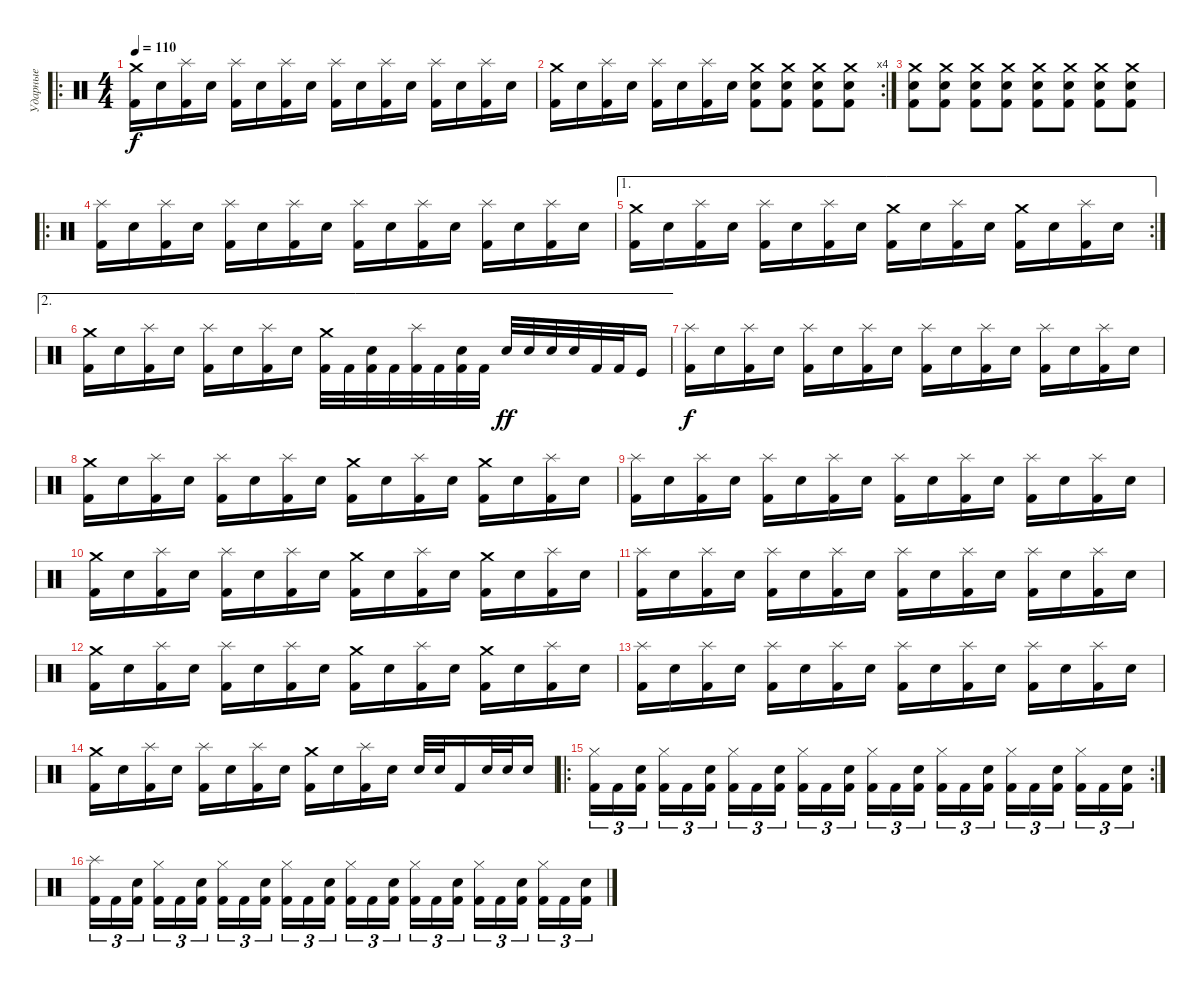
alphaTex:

\track ("Ударные" "Ударные") {instrument percussion}
\staff {score}
\articulation defaults
\ro
\ts (4 4)
\tempo 110
\clef neutral
\ks c
("Crash medium (hit)" "Kick (hit) 2").16{dy f} "Electric Snare (hit)".16 ("Splash (hit)" "Kick (hit) 2").16 "Electric Snare (hit)".16 ("Splash (hit)" "Kick (hit) 2").16 "Electric Snare (hit)".16 ("Splash (hit)" "Kick (hit) 2").16 "Electric Snare (hit)".16 ("Splash (hit)" "Kick (hit) 2").16 "Electric Snare (hit)".16 ("Splash (hit)" "Kick (hit) 2").16 "Electric Snare (hit)".16 ("Splash (hit)" "Kick (hit) 2").16 "Electric Snare (hit)".16 ("Splash (hit)" "Kick (hit) 2").16 "Electric Snare (hit)".16 |
\rc 4
("Crash medium (hit)" "Kick (hit) 2").16 "Electric Snare (hit)".16 ("Splash (hit)" "Kick (hit) 2").16 "Electric Snare (hit)".16 ("Splash (hit)" "Kick (hit) 2").16 "Electric Snare (hit)".16 ("Splash (hit)" "Kick (hit) 2").16 "Electric Snare (hit)".16 ("Crash medium (hit)" "Electric Snare (hit)" "Kick (hit) 2").8 ("Crash medium (hit)" "Electric Snare (hit)" "Kick (hit) 2").8 ("Crash medium (hit)" "Electric Snare (hit)" "Kick (hit) 2").8 ("Crash medium (hit)" "Electric Snare (hit)" "Kick (hit) 2").8 |
("Crash medium (hit)" "Electric Snare (hit)" "Kick (hit) 2").8 ("Crash medium (hit)" "Electric Snare (hit)" "Kick (hit) 2").8 ("Crash medium (hit)" "Electric Snare (hit)" "Kick (hit) 2").8 ("Crash medium (hit)" "Electric Snare (hit)" "Kick (hit) 2").8 ("Crash medium (hit)" "Electric Snare (hit)" "Kick (hit) 2").8 ("Crash medium (hit)" "Electric Snare (hit)" "Kick (hit) 2").8 ("Crash medium (hit)" "Electric Snare (hit)" "Kick (hit) 2").8 ("Crash medium (hit)" "Electric Snare (hit)" "Kick (hit) 2").8 |
\ro
("Splash (hit)" "Kick (hit) 2").16 "Electric Snare (hit)".16 ("Splash (hit)" "Kick (hit) 2").16 "Electric Snare (hit)".16 ("Splash (hit)" "Kick (hit) 2").16 "Electric Snare (hit)".16 ("Splash (hit)" "Kick (hit) 2").16 "Electric Snare (hit)".16 ("Splash (hit)" "Kick (hit) 2").16 "Electric Snare (hit)".16 ("Splash (hit)" "Kick (hit) 2").16 "Electric Snare (hit)".16 ("Splash (hit)" "Kick (hit) 2").16 "Electric Snare (hit)".16 ("Splash (hit)" "Kick (hit) 2").16 "Electric Snare (hit)".16 |
\ae 1
\rc 2
("Crash medium (hit)" "Kick (hit) 2").16 "Electric Snare (hit)".16 ("Splash (hit)" "Kick (hit) 2").16 "Electric Snare (hit)".16 ("Splash (hit)" "Kick (hit) 2").16 "Electric Snare (hit)".16 ("Splash (hit)" "Kick (hit) 2").16 "Electric Snare (hit)".16 ("Crash medium (hit)" "Kick (hit) 2").16 "Electric Snare (hit)".16 ("Splash (hit)" "Kick (hit) 2").16 "Electric Snare (hit)".16 ("Crash medium (hit)" "Kick (hit) 2").16 "Electric Snare (hit)".16 ("Splash (hit)" "Kick (hit) 2").16 "Electric Snare (hit)".16 |
\ae 2
("Crash medium (hit)" "Kick (hit) 2").16 "Electric Snare (hit)".16 ("Splash (hit)" "Kick (hit) 2").16 "Electric Snare (hit)".16 ("Splash (hit)" "Kick (hit) 2").16 "Electric Snare (hit)".16 ("Splash (hit)" "Kick (hit) 2").16 "Electric Snare (hit)".16 ("Crash medium (hit)" "Kick (hit) 2").32 "Kick (hit) 2".32 ("Electric Snare (hit)" "Kick (hit) 2").32 "Kick (hit) 2".32 ("Splash (hit)" "Kick (hit) 2").32 "Kick (hit) 2".32 ("Electric Snare (hit)" "Kick (hit) 2").32 "Kick (hit) 2".32 "Electric Snare (hit)".32{dy ff} "Electric Snare (hit)".32 "Snare (hit) 2".32 "Snare (hit) 2".32 "Kick (hit) 2".32 "Kick (hit) 2".32 "Kick (hit)".16 |
("Splash (hit)" "Kick (hit) 2").16{dy f} "Electric Snare (hit)".16 ("Splash (hit)" "Kick (hit) 2").16 "Electric Snare (hit)".16 ("Splash (hit)" "Kick (hit) 2").16 "Electric Snare (hit)".16 ("Splash (hit)" "Kick (hit) 2").16 "Electric Snare (hit)".16 ("Splash (hit)" "Kick (hit) 2").16 "Electric Snare (hit)".16 ("Splash (hit)" "Kick (hit) 2").16 "Electric Snare (hit)".16 ("Splash (hit)" "Kick (hit) 2").16 "Electric Snare (hit)".16 ("Splash (hit)" "Kick (hit) 2").16 "Electric Snare (hit)".16 |
("Crash medium (hit)" "Kick (hit) 2").16 "Electric Snare (hit)".16 ("Splash (hit)" "Kick (hit) 2").16 "Electric Snare (hit)".16 ("Splash (hit)" "Kick (hit) 2").16 "Electric Snare (hit)".16 ("Splash (hit)" "Kick (hit) 2").16 "Electric Snare (hit)".16 ("Crash medium (hit)" "Kick (hit) 2").16 "Electric Snare (hit)".16 ("Splash (hit)" "Kick (hit) 2").16 "Electric Snare (hit)".16 ("Crash medium (hit)" "Kick (hit) 2").16 "Electric Snare (hit)".16 ("Splash (hit)" "Kick (hit) 2").16 "Electric Snare (hit)".16 |
("Splash (hit)" "Kick (hit) 2").16 "Electric Snare (hit)".16 ("Splash (hit)" "Kick (hit) 2").16 "Electric Snare (hit)".16 ("Splash (hit)" "Kick (hit) 2").16 "Electric Snare (hit)".16 ("Splash (hit)" "Kick (hit) 2").16 "Electric Snare (hit)".16 ("Splash (hit)" "Kick (hit) 2").16 "Electric Snare (hit)".16 ("Splash (hit)" "Kick (hit) 2").16 "Electric Snare (hit)".16 ("Splash (hit)" "Kick (hit) 2").16 "Electric Snare (hit)".16 ("Splash (hit)" "Kick (hit) 2").16 "Electric Snare (hit)".16 |
("Crash medium (hit)" "Kick (hit) 2").16 "Electric Snare (hit)".16 ("Splash (hit)" "Kick (hit) 2").16 "Electric Snare (hit)".16 ("Splash (hit)" "Kick (hit) 2").16 "Electric Snare (hit)".16 ("Splash (hit)" "Kick (hit) 2").16 "Electric Snare (hit)".16 ("Crash medium (hit)" "Kick (hit) 2").16 "Electric Snare (hit)".16 ("Splash (hit)" "Kick (hit) 2").16 "Electric Snare (hit)".16 ("Crash medium (hit)" "Kick (hit) 2").16 "Electric Snare (hit)".16 ("Splash (hit)" "Kick (hit) 2").16 "Electric Snare (hit)".16 |
("Splash (hit)" "Kick (hit) 2").16 "Electric Snare (hit)".16 ("Splash (hit)" "Kick (hit) 2").16 "Electric Snare (hit)".16 ("Splash (hit)" "Kick (hit) 2").16 "Electric Snare (hit)".16 ("Splash (hit)" "Kick (hit) 2").16 "Electric Snare (hit)".16 ("Splash (hit)" "Kick (hit) 2").16 "Electric Snare (hit)".16 ("Splash (hit)" "Kick (hit) 2").16 "Electric Snare (hit)".16 ("Splash (hit)" "Kick (hit) 2").16 "Electric Snare (hit)".16 ("Splash (hit)" "Kick (hit) 2").16 "Electric Snare (hit)".16 |
("Crash medium (hit)" "Kick (hit) 2").16 "Electric Snare (hit)".16 ("Splash (hit)" "Kick (hit) 2").16 "Electric Snare (hit)".16 ("Splash (hit)" "Kick (hit) 2").16 "Electric Snare (hit)".16 ("Splash (hit)" "Kick (hit) 2").16 "Electric Snare (hit)".16 ("Crash medium (hit)" "Kick (hit) 2").16 "Electric Snare (hit)".16 ("Splash (hit)" "Kick (hit) 2").16 "Electric Snare (hit)".16 ("Crash medium (hit)" "Kick (hit) 2").16 "Electric Snare (hit)".16 ("Splash (hit)" "Kick (hit) 2").16 "Electric Snare (hit)".16 |
("Splash (hit)" "Kick (hit) 2").16 "Electric Snare (hit)".16 ("Splash (hit)" "Kick (hit) 2").16 "Electric Snare (hit)".16 ("Splash (hit)" "Kick (hit) 2").16 "Electric Snare (hit)".16 ("Splash (hit)" "Kick (hit) 2").16 "Electric Snare (hit)".16 ("Splash (hit)" "Kick (hit) 2").16 "Electric Snare (hit)".16 ("Splash (hit)" "Kick (hit) 2").16 "Electric Snare (hit)".16 ("Splash (hit)" "Kick (hit) 2").16 "Electric Snare (hit)".16 ("Splash (hit)" "Kick (hit) 2").16 "Electric Snare (hit)".16 |
("Crash medium (hit)" "Kick (hit) 2").16 "Electric Snare (hit)".16 ("Splash (hit)" "Kick (hit) 2").16 "Electric Snare (hit)".16 ("Splash (hit)" "Kick (hit) 2").16 "Electric Snare (hit)".16 ("Splash (hit)" "Kick (hit) 2").16 "Electric Snare (hit)".16 ("Crash medium (hit)" "Kick (hit) 2").16 "Electric Snare (hit)".16 ("Splash (hit)" "Kick (hit) 2").16 "Electric Snare (hit)".16 "Electric Snare (hit)".32 "Electric Snare (hit)".32 "Kick (hit) 2".16 "Snare (hit) 2".32 "Snare (hit) 2".32 "Electric Snare (hit)".16 |
\ro
\rc 2
("Hi-Hat (closed)" "Kick (hit) 2").16{tu (3 2)} "Kick (hit) 2".16{tu (3 2)} ("Electric Snare (hit)" "Kick (hit) 2").16{tu (3 2) beam splitsecondary} ("Hi-Hat (closed)" "Kick (hit) 2").16{tu (3 2)} "Kick (hit) 2".16{tu (3 2)} ("Electric Snare (hit)" "Kick (hit) 2").16{tu (3 2)} ("Hi-Hat (closed)" "Kick (hit) 2").16{tu (3 2)} "Kick (hit) 2".16{tu (3 2)} ("Electric Snare (hit)" "Kick (hit) 2").16{tu (3 2) beam splitsecondary} ("Hi-Hat (closed)" "Kick (hit) 2").16{tu (3 2)} "Kick (hit) 2".16{tu (3 2)} ("Electric Snare (hit)" "Kick (hit) 2").16{tu (3 2)} ("Hi-Hat (closed)" "Kick (hit) 2").16{tu (3 2)} "Kick (hit) 2".16{tu (3 2)} ("Electric Snare (hit)" "Kick (hit) 2").16{tu (3 2) beam splitsecondary} ("Hi-Hat (closed)" "Kick (hit) 2").16{tu (3 2)} "Kick (hit) 2".16{tu (3 2)} ("Electric Snare (hit)" "Kick (hit) 2").16{tu (3 2)} ("Hi-Hat (closed)" "Kick (hit) 2").16{tu (3 2)} "Kick (hit) 2".16{tu (3 2)} ("Electric Snare (hit)" "Kick (hit) 2").16{tu (3 2) beam splitsecondary} ("Hi-Hat (closed)" "Kick (hit) 2").16{tu (3 2)} "Kick (hit) 2".16{tu (3 2)} ("Electric Snare (hit)" "Kick (hit) 2").16{tu (3 2)} |
("Splash (hit)" "Kick (hit) 2").16{tu (3 2)} "Kick (hit) 2".16{tu (3 2)} ("Electric Snare (hit)" "Kick (hit) 2").16{tu (3 2) beam splitsecondary} ("Hi-Hat (closed)" "Kick (hit) 2").16{tu (3 2)} "Kick (hit) 2".16{tu (3 2)} ("Electric Snare (hit)" "Kick (hit) 2").16{tu (3 2)} ("Hi-Hat (closed)" "Kick (hit) 2").16{tu (3 2)} "Kick (hit) 2".16{tu (3 2)} ("Electric Snare (hit)" "Kick (hit) 2").16{tu (3 2) beam splitsecondary} ("Hi-Hat (closed)" "Kick (hit) 2").16{tu (3 2)} "Kick (hit) 2".16{tu (3 2)} ("Electric Snare (hit)" "Kick (hit) 2").16{tu (3 2)} ("Hi-Hat (closed)" "Kick (hit) 2").16{tu (3 2)} "Kick (hit) 2".16{tu (3 2)} ("Electric Snare (hit)" "Kick (hit) 2").16{tu (3 2) beam splitsecondary} ("Hi-Hat (closed)" "Kick (hit) 2").16{tu (3 2)} "Kick (hit) 2".16{tu (3 2)} ("Electric Snare (hit)" "Kick (hit) 2").16{tu (3 2)} ("Hi-Hat (closed)" "Kick (hit) 2").16{tu (3 2)} "Kick (hit) 2".16{tu (3 2)} ("Electric Snare (hit)" "Kick (hit) 2").16{tu (3 2) beam splitsecondary} ("Hi-Hat (closed)" "Kick (hit) 2").16{tu (3 2)} "Kick (hit) 2".16{tu (3 2)} ("Electric Snare (hit)" "Kick (hit) 2").16{tu (3 2)}
